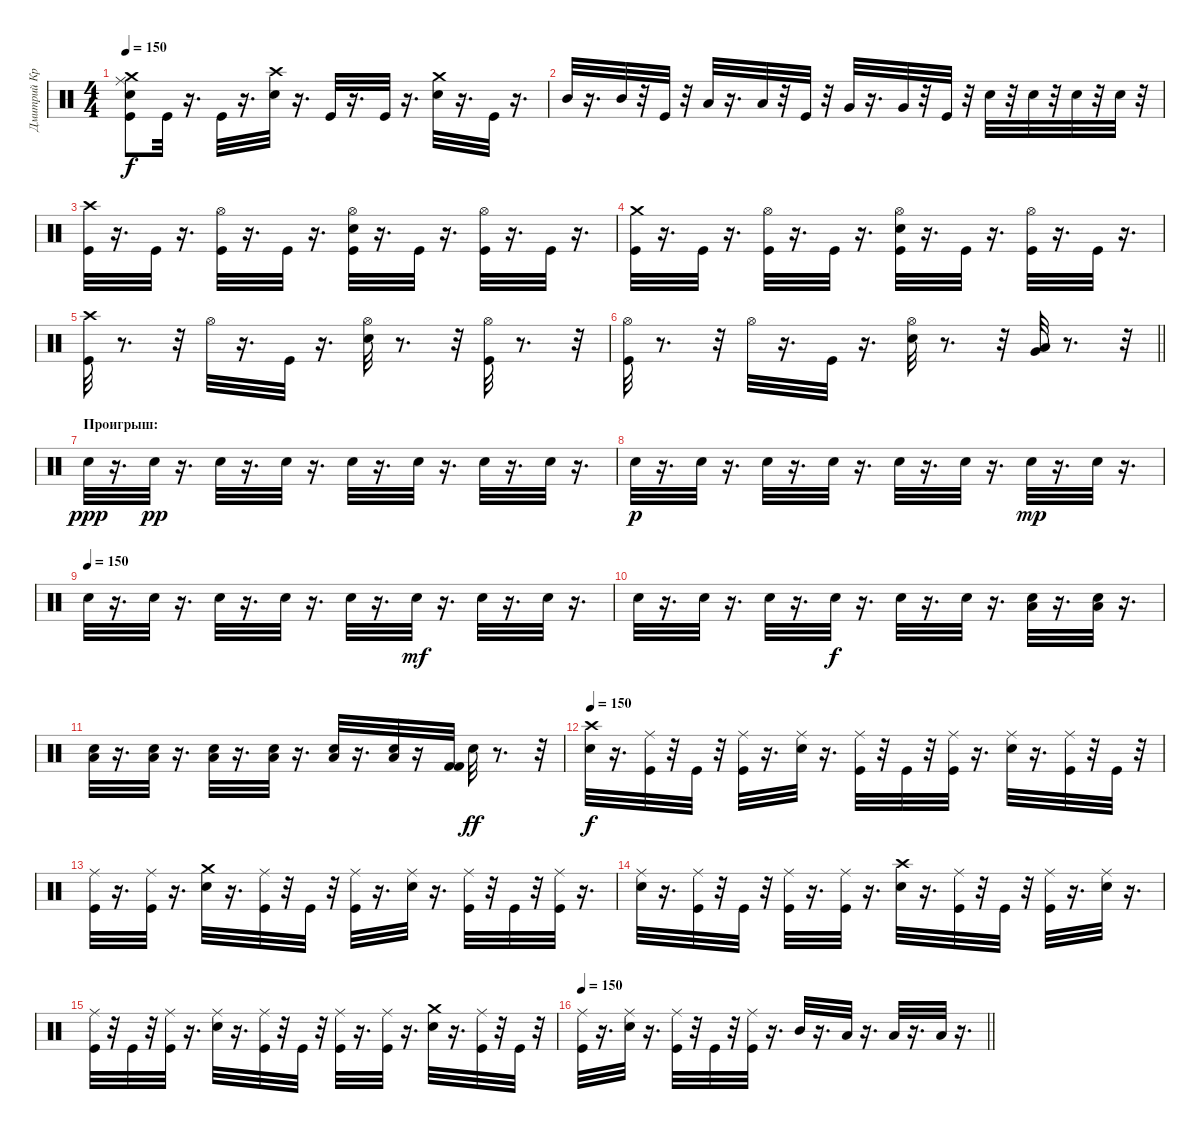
\track ("Дмитрий Кривенков" "Дмитрий Кр") {instrument percussion}
\staff {score}
\articulation defaults
\ts (4 4)
\tempo 150
\clef neutral
\ks c
("Crash medium (hit)" "Electric Snare (hit)" "Ride (middle)" "Kick (hit)").8{dy f} "Kick (hit)".32 r.16{d} "Kick (hit)".32 r.16{d} ("Crash high (hit)" "Electric Snare (hit)").32 r.16{d} "Kick (hit)".32 r.16{d} "Kick (hit)".32 r.16{d} ("Crash medium (hit)" "Electric Snare (hit)").32 r.16{d} "Kick (hit)".32 r.16{d} |
"Mid Tom (hit)".32 r.16{d} "Mid Tom (hit)".32 r.32 "Kick (hit)".32 r.32 "Low Tom (hit)".32 r.16{d} "Low Tom (hit)".32 r.32 "Kick (hit)".32 r.32 "Very Low Tom (hit)".32 r.16{d} "Very Low Tom (hit)".32 r.32 "Kick (hit)".32 r.32 "Electric Snare (hit)".32 r.32 "Electric Snare (hit)".32 r.32 "Electric Snare (hit)".32 r.32 "Electric Snare (hit)".32 r.32 |
("Crash high (hit)" "Kick (hit)").32 r.16{d} "Kick (hit)".32 r.16{d} ("Hi-Hat (open)" "Kick (hit)").32 r.16{d} "Kick (hit)".32 r.16{d} ("Kick (hit)" "Hi-Hat (open)" "Electric Snare (hit)").32 r.16{d} "Kick (hit)".32 r.16{d} ("Hi-Hat (open)" "Kick (hit)").32 r.16{d} "Kick (hit)".32 r.16{d} |
("Crash medium (hit)" "Kick (hit)").32 r.16{d} "Kick (hit)".32 r.16{d} ("Hi-Hat (open)" "Kick (hit)").32 r.16{d} "Kick (hit)".32 r.16{d} ("Hi-Hat (open)" "Kick (hit)" "Electric Snare (hit)").32 r.16{d} "Kick (hit)".32 r.16{d} ("Kick (hit)" "Hi-Hat (open)").32 r.16{d} "Kick (hit)".32 r.16{d} |
("Crash high (hit)" "Kick (hit)").32 r.8{d} r.32 "Hi-Hat (open)".32 r.16{d} "Kick (hit)".32 r.16{d} ("Hi-Hat (open)" "Electric Snare (hit)").32 r.8{d} r.32 ("Hi-Hat (open)" "Kick (hit)").32 r.8{d} r.32 |
\barLineRight lightlight
("Hi-Hat (open)" "Kick (hit)").32 r.8{d} r.32 "Hi-Hat (open)".32 r.16{d} "Kick (hit)".32 r.16{d} ("Hi-Hat (open)" "Electric Snare (hit)").32 r.8{d} r.32 ("Very Low Tom (hit)" "Low Tom (hit)").32 r.8{d} r.32 |
\section ("" "Проигрыш:")
"Electric Snare (hit)".32{dy ppp} r.16{d} "Electric Snare (hit)".32{dy pp} r.16{d} "Electric Snare (hit)".32 r.16{d} "Electric Snare (hit)".32 r.16{d} "Electric Snare (hit)".32 r.16{d} "Electric Snare (hit)".32 r.16{d} "Electric Snare (hit)".32 r.16{d} "Electric Snare (hit)".32 r.16{d} |
"Electric Snare (hit)".32{dy p} r.16{d} "Electric Snare (hit)".32 r.16{d} "Electric Snare (hit)".32 r.16{d} "Electric Snare (hit)".32 r.16{d} "Electric Snare (hit)".32 r.16{d} "Electric Snare (hit)".32 r.16{d} "Electric Snare (hit)".32{dy mp} r.16{d} "Electric Snare (hit)".32 r.16{d} |
\tempo (150)
"Electric Snare (hit)".32 r.16{d} "Electric Snare (hit)".32 r.16{d} "Electric Snare (hit)".32 r.16{d} "Electric Snare (hit)".32 r.16{d} "Electric Snare (hit)".32 r.16{d} "Electric Snare (hit)".32{dy mf} r.16{d} "Electric Snare (hit)".32 r.16{d} "Electric Snare (hit)".32 r.16{d} |
"Electric Snare (hit)".32 r.16{d} "Electric Snare (hit)".32 r.16{d} "Electric Snare (hit)".32 r.16{d} "Electric Snare (hit)".32{dy f} r.16{d} "Electric Snare (hit)".32 r.16{d} "Electric Snare (hit)".32 r.16{d} ("Electric Snare (hit)" "Low Floor Tom (hit)").32 r.16{d} ("Low Floor Tom (hit)" "Electric Snare (hit)").32 r.16{d} |
("Low Floor Tom (hit)" "Electric Snare (hit)").32 r.16{d} ("Low Floor Tom (hit)" "Electric Snare (hit)").32 r.16{d} ("Low Floor Tom (hit)" "Electric Snare (hit)").32 r.16{d} ("Low Floor Tom (hit)" "Electric Snare (hit)").32 r.16{d} ("Low Floor Tom (hit)" "Electric Snare (hit)").32 r.16{d} ("Electric Snare (hit)" "Low Floor Tom (hit)").32 r.16 ("Kick (hit) 2" "Kick (hit) 2").32 "Electric Snare (hit)".32{dy ff} r.8{d} r.32 |
\tempo 150
("Crash high (hit)" "Electric Snare (hit)").32{dy f} r.16{d} ("Ride (middle)" "Kick (hit)").32 r.32 "Kick (hit)".32 r.32 ("Kick (hit)" "Ride (middle)").32 r.16{d} ("Ride (middle)" "Electric Snare (hit)").32 r.16{d} ("Ride (middle)" "Kick (hit)").32 r.32 "Kick (hit)".32 r.32 ("Ride (middle)" "Kick (hit)").32 r.16{d} ("Ride (middle)" "Electric Snare (hit)").32 r.16{d} ("Ride (middle)" "Kick (hit)").32 r.32 "Kick (hit)".32 r.32 |
("Ride (middle)" "Kick (hit)").32 r.16{d} ("Ride (middle)" "Kick (hit)").32 r.16{d} ("Crash medium (hit)" "Electric Snare (hit)").32 r.16{d} ("Kick (hit)" "Ride (middle)").32 r.32 "Kick (hit)".32 r.32 ("Kick (hit)" "Ride (middle)").32 r.16{d} ("Electric Snare (hit)" "Ride (middle)").32 r.16{d} ("Kick (hit)" "Ride (middle)").32 r.32 "Kick (hit)".32 r.32 ("Kick (hit)" "Ride (middle)").32 r.16{d} |
("Electric Snare (hit)" "Ride (middle)").32 r.16{d} ("Kick (hit)" "Ride (middle)").32 r.32 "Kick (hit)".32 r.32 ("Kick (hit)" "Ride (middle)").32 r.16{d} ("Ride (middle)" "Kick (hit)").32 r.16{d} ("Electric Snare (hit)" "Crash high (hit)").32 r.16{d} ("Ride (middle)" "Kick (hit)").32 r.32 "Kick (hit)".32 r.32 ("Ride (middle)" "Kick (hit)").32 r.16{d} ("Ride (middle)" "Electric Snare (hit)").32 r.16{d} |
("Ride (middle)" "Kick (hit)").32 r.32 "Kick (hit)".32 r.32 ("Ride (middle)" "Kick (hit)").32 r.16{d} ("Ride (middle)" "Electric Snare (hit)").32 r.16{d} ("Ride (middle)" "Kick (hit)").32 r.32 "Kick (hit)".32 r.32 ("Ride (middle)" "Kick (hit)").32 r.16{d} ("Ride (middle)" "Kick (hit)").32 r.16{d} ("Electric Snare (hit)" "Crash medium (hit)").32 r.16{d} ("Kick (hit)" "Ride (middle)").32 r.32 "Kick (hit)".32 r.32 |
\tempo 150
\barLineRight lightlight
("Ride (middle)" "Kick (hit)").32 r.16{d} ("Ride (middle)" "Electric Snare (hit)").32 r.16{d} ("Ride (middle)" "Kick (hit)").32 r.32 "Kick (hit)".32 r.32 ("Ride (middle)" "Kick (hit)").32 r.16{d} "Mid Tom (hit)".32 r.16{d} "Low Tom (hit)".32 r.16{d} "Low Tom (hit)".32 r.16{d} "Low Floor Tom (hit)".32 r.16{d}
